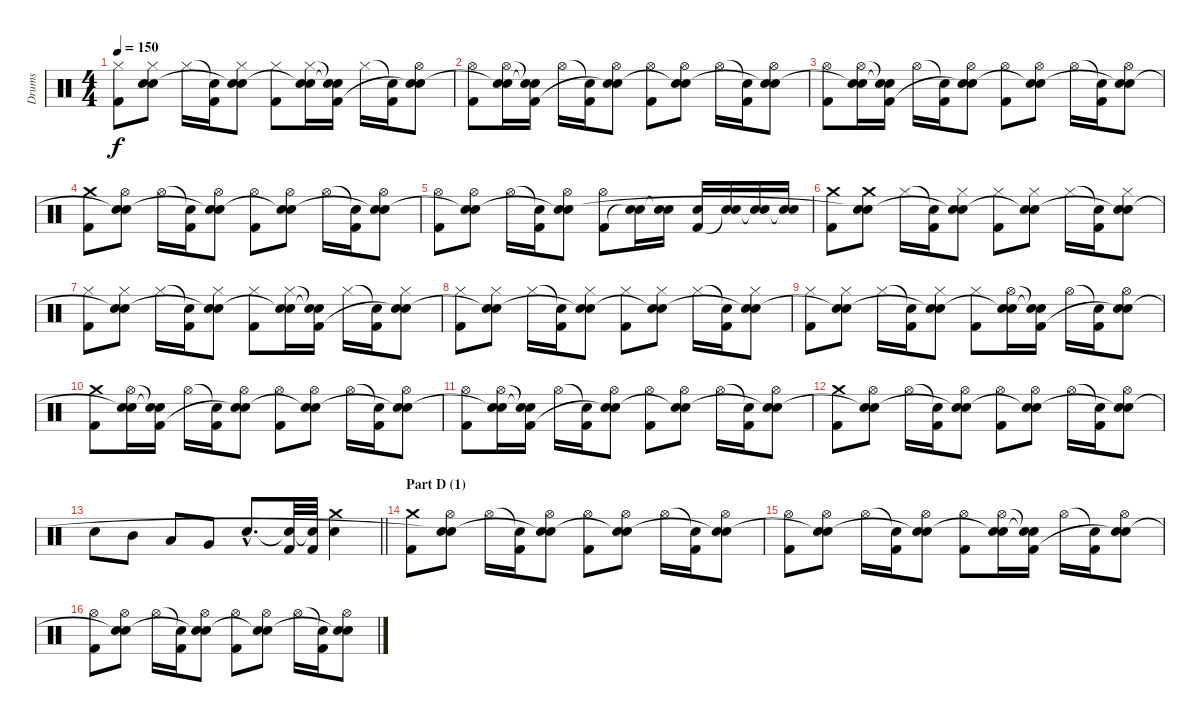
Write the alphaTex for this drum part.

\track ("Drums" "Drums") {instrument percussion}
\staff {score}
\articulation defaults
\ts (4 4)
\tempo 150
\clef neutral
\ks c
("Hi-Hat (closed)" "Kick (hit) 2").8{dy f} ("Hi-Hat (closed)" "Electric Snare (hit)" "Snare (hit)"{t}).8 "Hi-Hat (closed)".16 ("Snare (hit)"{t} "Kick (hit) 2").16 ("Hi-Hat (closed)" "Electric Snare (hit)" "Snare (hit)"{t}).8 ("Hi-Hat (closed)" "Kick (hit) 2").8 ("Hi-Hat (closed)" "Electric Snare (hit)" "Snare (hit)"{t}).16 ("Snare (hit)"{t} "Snare (hit)"{t} "Kick (hit) 2").16 "Hi-Hat (closed)".16 ("Snare (hit)"{t} "Kick (hit) 2").16 ("Hi-Hat (open)" "Electric Snare (hit)" "Snare (hit)"{t}).8 |
("Hi-Hat (open)" "Kick (hit) 2").8 ("Hi-Hat (open)" "Electric Snare (hit)" "Snare (hit)"{t}).16 ("Snare (hit)"{t} "Snare (hit)"{t} "Kick (hit) 2").16 "Hi-Hat (open)".16 ("Snare (hit)"{t} "Kick (hit) 2").16 ("Hi-Hat (open)" "Electric Snare (hit)" "Snare (hit)"{t}).8 ("Hi-Hat (open)" "Kick (hit) 2").8 ("Hi-Hat (open)" "Electric Snare (hit)" "Snare (hit)"{t}).8 "Hi-Hat (open)".16 ("Snare (hit)"{t} "Kick (hit) 2").16 ("Hi-Hat (open)" "Electric Snare (hit)" "Snare (hit)"{t}).8 |
("Hi-Hat (open)" "Kick (hit) 2").8 ("Hi-Hat (open)" "Electric Snare (hit)" "Snare (hit)"{t}).16 ("Snare (hit)"{t} "Snare (hit)"{t} "Kick (hit) 2").16 "Hi-Hat (open)".16 ("Snare (hit)"{t} "Kick (hit) 2").16 ("Hi-Hat (open)" "Electric Snare (hit)" "Snare (hit)"{t}).8 ("Hi-Hat (open)" "Kick (hit) 2").8 ("Hi-Hat (open)" "Electric Snare (hit)" "Snare (hit)"{t}).8 "Hi-Hat (open)".16 ("Snare (hit)"{t} "Kick (hit) 2").16 ("Hi-Hat (open)" "Electric Snare (hit)" "Snare (hit)"{t}).8 |
("Crash medium (hit)" "Kick (hit) 2").8 ("Hi-Hat (open)" "Electric Snare (hit)" "Snare (hit)"{t}).8 "Hi-Hat (open)".16 ("Snare (hit)"{t} "Kick (hit) 2").16 ("Hi-Hat (open)" "Electric Snare (hit)" "Snare (hit)"{t}).8 ("Hi-Hat (open)" "Kick (hit) 2").8 ("Hi-Hat (open)" "Electric Snare (hit)" "Snare (hit)"{t}).8 "Hi-Hat (open)".16 ("Snare (hit)"{t} "Kick (hit) 2").16 ("Hi-Hat (open)" "Electric Snare (hit)" "Snare (hit)"{t}).8 |
("Hi-Hat (open)" "Kick (hit) 2").8 ("Hi-Hat (open)" "Electric Snare (hit)" "Snare (hit)"{t}).8 "Hi-Hat (open)".16 ("Snare (hit)"{t} "Kick (hit) 2").16 ("Hi-Hat (open)" "Electric Snare (hit)" "Snare (hit)"{t}).8 ("Hi-Hat (open)" "Kick (hit) 2").8 ("Electric Snare (hit)" "Snare (hit)"{t}).16 ("Electric Snare (hit)" "Snare (hit)"{t}).16 ("Electric Snare (hit)" "Kick (hit) 2").16 ("Electric Snare (hit)" "Snare (hit)"{t}).16 ("Electric Snare (hit)" "Snare (hit)"{t}).16 ("Electric Snare (hit)" "Snare (hit)"{t}).16 |
("Crash medium (hit)" "Kick (hit) 2").8 ("Crash medium (hit)" "Electric Snare (hit)" "Snare (hit)"{t}).8 "Hi-Hat (closed)".16 ("Snare (hit)"{t} "Kick (hit) 2").16 ("Hi-Hat (closed)" "Electric Snare (hit)" "Snare (hit)"{t}).8 ("Hi-Hat (closed)" "Kick (hit) 2").8 ("Hi-Hat (closed)" "Electric Snare (hit)" "Snare (hit)"{t}).8 "Hi-Hat (closed)".16 ("Snare (hit)"{t} "Kick (hit) 2").16 ("Hi-Hat (closed)" "Electric Snare (hit)" "Snare (hit)"{t}).8 |
("Hi-Hat (closed)" "Kick (hit) 2").8 ("Hi-Hat (closed)" "Electric Snare (hit)" "Snare (hit)"{t}).8 "Hi-Hat (closed)".16 ("Snare (hit)"{t} "Kick (hit) 2").16 ("Hi-Hat (closed)" "Electric Snare (hit)" "Snare (hit)"{t}).8 ("Hi-Hat (closed)" "Kick (hit) 2").8 ("Hi-Hat (closed)" "Electric Snare (hit)" "Snare (hit)"{t}).16 ("Snare (hit)"{t} "Snare (hit)"{t} "Kick (hit) 2").16 "Hi-Hat (closed)".16 ("Snare (hit)"{t} "Kick (hit) 2").16 ("Hi-Hat (closed)" "Electric Snare (hit)" "Snare (hit)"{t}).8 |
("Hi-Hat (closed)" "Kick (hit) 2").8 ("Hi-Hat (closed)" "Electric Snare (hit)" "Snare (hit)"{t}).8 "Hi-Hat (closed)".16 ("Snare (hit)"{t} "Kick (hit) 2").16 ("Hi-Hat (closed)" "Electric Snare (hit)" "Snare (hit)"{t}).8 ("Hi-Hat (closed)" "Kick (hit) 2").8 ("Hi-Hat (closed)" "Electric Snare (hit)" "Snare (hit)"{t}).8 "Hi-Hat (closed)".16 ("Snare (hit)"{t} "Kick (hit) 2").16 ("Hi-Hat (closed)" "Electric Snare (hit)" "Snare (hit)"{t}).8 |
("Hi-Hat (closed)" "Kick (hit) 2").8 ("Hi-Hat (closed)" "Electric Snare (hit)" "Snare (hit)"{t}).8 "Hi-Hat (closed)".16 ("Snare (hit)"{t} "Kick (hit) 2").16 ("Hi-Hat (closed)" "Electric Snare (hit)" "Snare (hit)"{t}).8 ("Hi-Hat (closed)" "Kick (hit) 2").8 ("Hi-Hat (open)" "Electric Snare (hit)" "Snare (hit)"{t}).16 ("Snare (hit)"{t} "Snare (hit)"{t} "Kick (hit) 2").16 "Hi-Hat (open)".16 ("Snare (hit)"{t} "Kick (hit) 2").16 ("Hi-Hat (open)" "Electric Snare (hit)" "Snare (hit)"{t}).8 |
("Crash medium (hit)" "Kick (hit) 2").8 ("Hi-Hat (open)" "Electric Snare (hit)" "Snare (hit)"{t}).16 ("Snare (hit)"{t} "Snare (hit)"{t} "Kick (hit) 2").16 "Hi-Hat (open)".16 ("Snare (hit)"{t} "Kick (hit) 2").16 ("Hi-Hat (open)" "Electric Snare (hit)" "Snare (hit)"{t}).8 ("Hi-Hat (open)" "Kick (hit) 2").8 ("Hi-Hat (open)" "Electric Snare (hit)" "Snare (hit)"{t}).8 "Hi-Hat (open)".16 ("Snare (hit)"{t} "Kick (hit) 2").16 ("Hi-Hat (open)" "Electric Snare (hit)" "Snare (hit)"{t}).8 |
("Hi-Hat (open)" "Kick (hit) 2").8 ("Hi-Hat (open)" "Electric Snare (hit)" "Snare (hit)"{t}).16 ("Snare (hit)"{t} "Snare (hit)"{t} "Kick (hit) 2").16 "Hi-Hat (open)".16 ("Snare (hit)"{t} "Kick (hit) 2").16 ("Hi-Hat (open)" "Electric Snare (hit)" "Snare (hit)"{t}).8 ("Hi-Hat (open)" "Kick (hit) 2").8 ("Hi-Hat (open)" "Electric Snare (hit)" "Snare (hit)"{t}).8 "Hi-Hat (open)".16 ("Snare (hit)"{t} "Kick (hit) 2").16 ("Hi-Hat (open)" "Electric Snare (hit)" "Snare (hit)"{t}).8 |
("Crash medium (hit)" "Kick (hit) 2").8 ("Hi-Hat (open)" "Electric Snare (hit)" "Snare (hit)"{t}).8 "Hi-Hat (open)".16 ("Snare (hit)"{t} "Kick (hit) 2").16 ("Hi-Hat (open)" "Electric Snare (hit)" "Snare (hit)"{t}).8 ("Hi-Hat (open)" "Kick (hit) 2").8 ("Hi-Hat (open)" "Electric Snare (hit)" "Snare (hit)"{t}).8 "Hi-Hat (open)".16 ("Snare (hit)"{t} "Kick (hit) 2").16 ("Hi-Hat (open)" "Electric Snare (hit)" "Snare (hit)"{t}).8 |
\barLineRight lightlight "Electric Snare (hit)".8 "Mid Tom (hit)".8 "Low Tom (hit)".8 "Very Low Tom (hit)".8 "Electric Snare (hit)"{hac}.8{d}
("Snare (hit)"{t} "Kick (hit) 2").32 ("Snare (hit)"{t} "Kick (hit) 2").32 ("Crash medium (hit)" "Electric Snare (hit)").4 |
\section ("" "Part D (1)")
("Crash medium (hit)" "Kick (hit) 2").8 ("Hi-Hat (open)" "Electric Snare (hit)" "Snare (hit)"{t}).8 "Hi-Hat (open)".16 ("Snare (hit)"{t} "Kick (hit) 2").16 ("Hi-Hat (open)" "Electric Snare (hit)" "Snare (hit)"{t}).8 ("Hi-Hat (open)" "Kick (hit) 2").8 ("Hi-Hat (open)" "Electric Snare (hit)" "Snare (hit)"{t}).8 "Hi-Hat (open)".16 ("Snare (hit)"{t} "Kick (hit) 2").16 ("Hi-Hat (open)" "Electric Snare (hit)" "Snare (hit)"{t}).8 |
("Hi-Hat (open)" "Kick (hit) 2").8 ("Hi-Hat (open)" "Electric Snare (hit)" "Snare (hit)"{t}).8 "Hi-Hat (open)".16 ("Snare (hit)"{t} "Kick (hit) 2").16 ("Hi-Hat (open)" "Electric Snare (hit)" "Snare (hit)"{t}).8 ("Hi-Hat (open)" "Kick (hit) 2").8 ("Hi-Hat (open)" "Electric Snare (hit)" "Snare (hit)"{t}).16 ("Snare (hit)"{t} "Snare (hit)"{t} "Kick (hit) 2").16 "Hi-Hat (open)".16 ("Snare (hit)"{t} "Kick (hit) 2").16 ("Hi-Hat (open)" "Electric Snare (hit)" "Snare (hit)"{t}).8 |
("Hi-Hat (open)" "Kick (hit) 2").8 ("Hi-Hat (open)" "Electric Snare (hit)" "Snare (hit)"{t}).8 "Hi-Hat (open)".16 ("Snare (hit)"{t} "Kick (hit) 2").16 ("Hi-Hat (open)" "Electric Snare (hit)" "Snare (hit)"{t}).8 ("Hi-Hat (open)" "Kick (hit) 2").8 ("Hi-Hat (open)" "Electric Snare (hit)" "Snare (hit)"{t}).8 "Hi-Hat (open)".16 ("Snare (hit)"{t} "Kick (hit) 2").16 ("Hi-Hat (open)" "Electric Snare (hit)" "Snare (hit)"{t}).8
